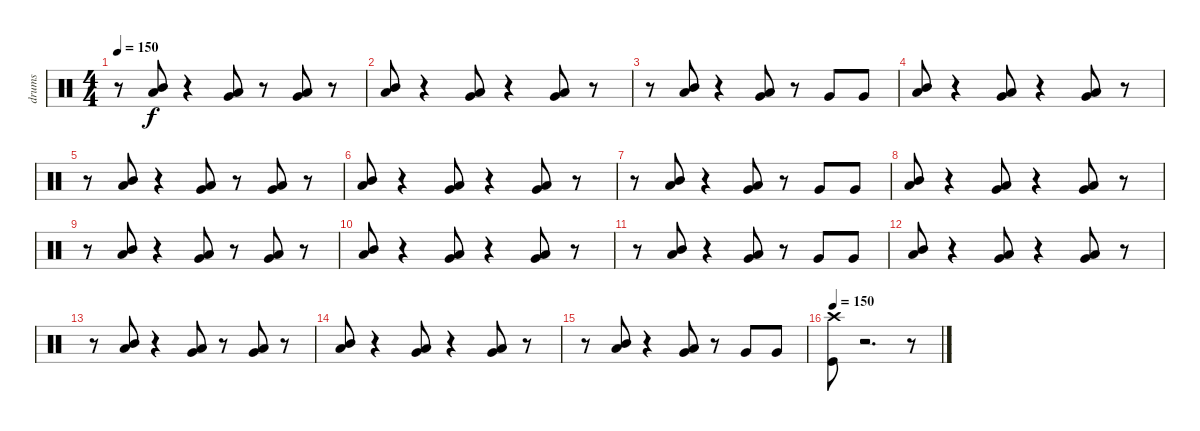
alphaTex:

\track ("drums" "drums") {instrument percussion}
\staff {score}
\articulation defaults
\ts (4 4)
\tempo 150
\clef neutral
\ks c
r.8{dy f} ("Mid Tom (hit)" "Low Tom (hit)").8 r.4 ("Low Tom (hit)" "Very Low Tom (hit)").8 r.8 ("Very Low Tom (hit)" "Low Floor Tom (hit)").8 r.8 |
("Low Tom (hit)" "Mid Tom (hit)").8 r.4 ("Low Tom (hit)" "Very Low Tom (hit)").8 r.4 ("Low Floor Tom (hit)" "Very Low Tom (hit)").8 r.8 |
r.8 ("Mid Tom (hit)" "Low Tom (hit)").8 r.4 ("Low Tom (hit)" "Very Low Tom (hit)").8 r.8 "Very Low Tom (hit)".8 "Very Low Tom (hit)".8 |
("Low Tom (hit)" "Mid Tom (hit)").8 r.4 ("Low Tom (hit)" "Very Low Tom (hit)").8 r.4 ("Low Floor Tom (hit)" "Very Low Tom (hit)").8 r.8 |
r.8 ("Mid Tom (hit)" "Low Tom (hit)").8 r.4 ("Low Tom (hit)" "Very Low Tom (hit)").8 r.8 ("Very Low Tom (hit)" "Low Floor Tom (hit)").8 r.8 |
("Low Tom (hit)" "Mid Tom (hit)").8 r.4 ("Low Tom (hit)" "Very Low Tom (hit)").8 r.4 ("Low Floor Tom (hit)" "Very Low Tom (hit)").8 r.8 |
r.8 ("Mid Tom (hit)" "Low Tom (hit)").8 r.4 ("Low Tom (hit)" "Very Low Tom (hit)").8 r.8 "Very Low Tom (hit)".8 "Very Low Tom (hit)".8 |
("Low Tom (hit)" "Mid Tom (hit)").8 r.4 ("Low Tom (hit)" "Very Low Tom (hit)").8 r.4 ("Low Floor Tom (hit)" "Very Low Tom (hit)").8 r.8 |
r.8 ("Mid Tom (hit)" "Low Tom (hit)").8 r.4 ("Low Tom (hit)" "Very Low Tom (hit)").8 r.8 ("Very Low Tom (hit)" "Low Floor Tom (hit)").8 r.8 |
("Low Tom (hit)" "Mid Tom (hit)").8 r.4 ("Low Tom (hit)" "Very Low Tom (hit)").8 r.4 ("Low Floor Tom (hit)" "Very Low Tom (hit)").8 r.8 |
r.8 ("Mid Tom (hit)" "Low Tom (hit)").8 r.4 ("Low Tom (hit)" "Very Low Tom (hit)").8 r.8 "Very Low Tom (hit)".8 "Very Low Tom (hit)".8 |
("Low Tom (hit)" "Mid Tom (hit)").8 r.4 ("Low Tom (hit)" "Very Low Tom (hit)").8 r.4 ("Low Floor Tom (hit)" "Very Low Tom (hit)").8 r.8 |
r.8 ("Mid Tom (hit)" "Low Tom (hit)").8 r.4 ("Low Tom (hit)" "Very Low Tom (hit)").8 r.8 ("Very Low Tom (hit)" "Low Floor Tom (hit)").8 r.8 |
("Low Tom (hit)" "Mid Tom (hit)").8 r.4 ("Low Tom (hit)" "Very Low Tom (hit)").8 r.4 ("Low Floor Tom (hit)" "Very Low Tom (hit)").8 r.8 |
r.8 ("Mid Tom (hit)" "Low Tom (hit)").8 r.4 ("Low Tom (hit)" "Very Low Tom (hit)").8 r.8 "Very Low Tom (hit)".8 "Very Low Tom (hit)".8 |
\tempo 150
("Crash high (hit)" "Kick (hit)").8 r.2{d} r.8
